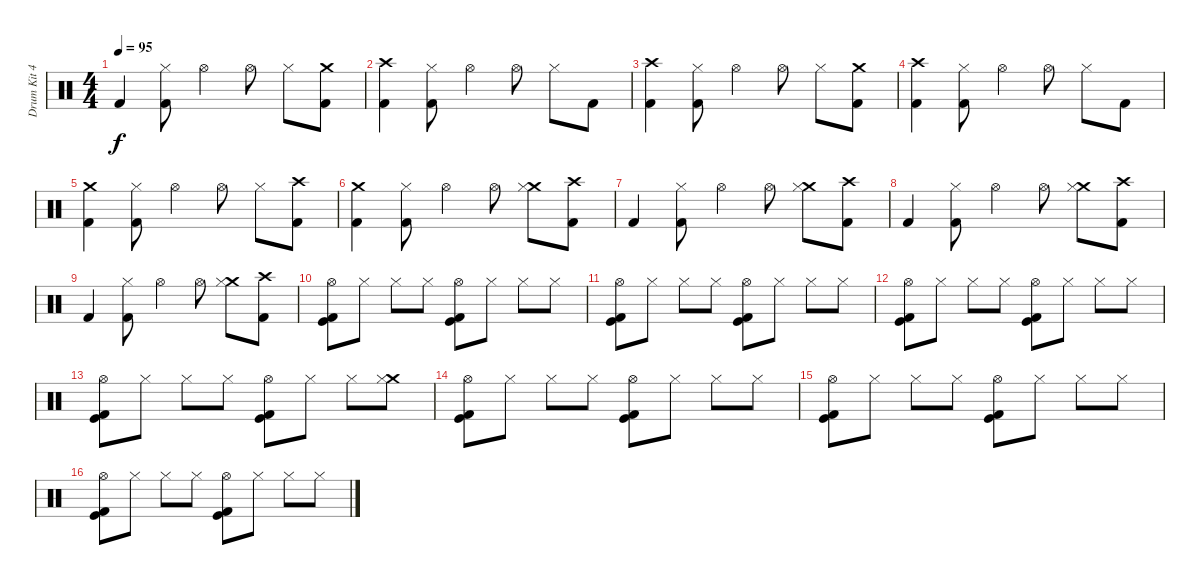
\track ("Drum Kit 42" "Drum Kit 4") {instrument percussion}
\staff {score}
\articulation defaults
\ts (4 4)
\tempo 95
\clef neutral
\ks c "Kick (hit) 2".4{dy f}
("Hi-Hat (closed)" "Kick (hit) 2").8 "Hi-Hat (open)".4 "Hi-Hat (open)".8 "Hi-Hat (closed)".8 ("Crash medium (hit)" "Kick (hit) 2").8 |
("Crash high (hit)" "Kick (hit) 2").4 ("Hi-Hat (closed)" "Kick (hit) 2").8 "Hi-Hat (open)".4 "Hi-Hat (open)".8 "Hi-Hat (closed)".8 "Kick (hit) 2".8 |
("Crash high (hit)" "Kick (hit) 2").4 ("Hi-Hat (closed)" "Kick (hit) 2").8 "Hi-Hat (open)".4 "Hi-Hat (open)".8 "Hi-Hat (closed)".8 ("Crash medium (hit)" "Kick (hit) 2").8 |
("Crash high (hit)" "Kick (hit) 2").4 ("Hi-Hat (closed)" "Kick (hit) 2").8 "Hi-Hat (open)".4 "Hi-Hat (open)".8 "Hi-Hat (closed)".8 "Kick (hit) 2".8 |
("Crash medium (hit)" "Kick (hit) 2").4 ("Hi-Hat (closed)" "Kick (hit) 2").8 "Hi-Hat (open)".4 "Hi-Hat (open)".8 "Hi-Hat (closed)".8 ("Crash high (hit)" "Kick (hit) 2").8 |
("Crash medium (hit)" "Kick (hit) 2").4 ("Hi-Hat (closed)" "Kick (hit) 2").8 "Hi-Hat (open)".4 "Hi-Hat (open)".8 ("Crash medium (hit)" "Hi-Hat (closed)").8 ("Crash high (hit)" "Kick (hit) 2").8 |
"Kick (hit) 2".4 ("Hi-Hat (closed)" "Kick (hit) 2").8 "Hi-Hat (open)".4 "Hi-Hat (open)".8 ("Crash medium (hit)" "Hi-Hat (closed)").8 ("Crash high (hit)" "Kick (hit) 2").8 |
"Kick (hit) 2".4 ("Hi-Hat (closed)" "Kick (hit) 2").8 "Hi-Hat (open)".4 "Hi-Hat (open)".8 ("Crash medium (hit)" "Hi-Hat (closed)").8 ("Crash high (hit)" "Kick (hit) 2").8 |
"Kick (hit) 2".4 ("Hi-Hat (closed)" "Kick (hit) 2").8 "Hi-Hat (open)".4 "Hi-Hat (open)".8 ("Crash medium (hit)" "Hi-Hat (closed)").8 ("Crash high (hit)" "Kick (hit) 2").8 |
("Hi-Hat (open)" "Kick (hit)" "Kick (hit) 2").8{volume 14} "Hi-Hat (closed)".8 "Hi-Hat (closed)".8 "Hi-Hat (closed)".8 ("Hi-Hat (open)" "Kick (hit)" "Kick (hit) 2").8 "Hi-Hat (closed)".8 "Hi-Hat (closed)".8 "Hi-Hat (closed)".8 |
("Hi-Hat (open)" "Kick (hit)" "Kick (hit) 2").8 "Hi-Hat (closed)".8 "Hi-Hat (closed)".8 "Hi-Hat (closed)".8 ("Hi-Hat (open)" "Kick (hit)" "Kick (hit) 2").8 "Hi-Hat (closed)".8 "Hi-Hat (closed)".8 "Hi-Hat (closed)".8 |
("Hi-Hat (open)" "Kick (hit)" "Kick (hit) 2").8 "Hi-Hat (closed)".8 "Hi-Hat (closed)".8 "Hi-Hat (closed)".8 ("Hi-Hat (open)" "Kick (hit)" "Kick (hit) 2").8 "Hi-Hat (closed)".8 "Hi-Hat (closed)".8 "Hi-Hat (closed)".8 |
("Hi-Hat (open)" "Kick (hit)" "Kick (hit) 2").8 "Hi-Hat (closed)".8 "Hi-Hat (closed)".8 "Hi-Hat (closed)".8 ("Hi-Hat (open)" "Kick (hit)" "Kick (hit) 2").8 "Hi-Hat (closed)".8 "Hi-Hat (closed)".8 ("Crash medium (hit)" "Hi-Hat (closed)").8 |
("Hi-Hat (open)" "Kick (hit)" "Kick (hit) 2").8 "Hi-Hat (closed)".8 "Hi-Hat (closed)".8 "Hi-Hat (closed)".8 ("Hi-Hat (open)" "Kick (hit)" "Kick (hit) 2").8 "Hi-Hat (closed)".8 "Hi-Hat (closed)".8 "Hi-Hat (closed)".8 |
("Hi-Hat (open)" "Kick (hit)" "Kick (hit) 2").8 "Hi-Hat (closed)".8 "Hi-Hat (closed)".8 "Hi-Hat (closed)".8 ("Hi-Hat (open)" "Kick (hit)" "Kick (hit) 2").8 "Hi-Hat (closed)".8 "Hi-Hat (closed)".8 "Hi-Hat (closed)".8 |
("Hi-Hat (open)" "Kick (hit)" "Kick (hit) 2").8 "Hi-Hat (closed)".8 "Hi-Hat (closed)".8 "Hi-Hat (closed)".8 ("Hi-Hat (open)" "Kick (hit)" "Kick (hit) 2").8 "Hi-Hat (closed)".8 "Hi-Hat (closed)".8 "Hi-Hat (closed)".8
